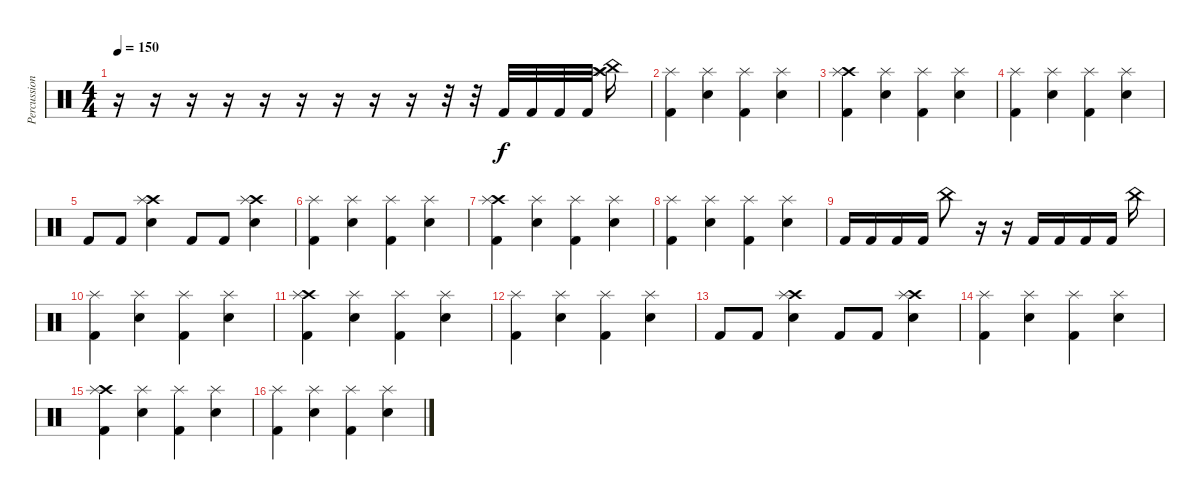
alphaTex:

\track ("Percussion" "Percussion") {instrument percussion}
\staff {score}
\articulation defaults
\ts (4 4)
\tempo 150
\clef neutral
\ks c
r.16{dy f} r.16 r.16 r.16 r.16 r.16 r.16 r.16 r.16 r.32 r.32 "Kick (hit) 2".32 "Kick (hit) 2".32 "Kick (hit) 2".32 "Kick (hit) 2".32 ("Crash high (hit)" "Splash (hit)" "China (hit)").16 |
("Splash (hit)" "Kick (hit) 2").4 ("Splash (hit)" "Electric Snare (hit)").4 ("Splash (hit)" "Kick (hit) 2").4 ("Splash (hit)" "Electric Snare (hit)").4 |
("Crash high (hit)" "Splash (hit)" "Kick (hit) 2").4 ("Splash (hit)" "Electric Snare (hit)").4 ("Splash (hit)" "Kick (hit) 2").4 ("Splash (hit)" "Electric Snare (hit)").4 |
("Splash (hit)" "Kick (hit) 2").4 ("Splash (hit)" "Electric Snare (hit)").4 ("Splash (hit)" "Kick (hit) 2").4 ("Splash (hit)" "Electric Snare (hit)").4 |
"Kick (hit) 2".8 "Kick (hit) 2".8 ("Electric Snare (hit)" "Crash high (hit)" "Splash (hit)").4 "Kick (hit) 2".8 "Kick (hit) 2".8 ("Electric Snare (hit)" "Crash high (hit)" "Splash (hit)").4 |
("Splash (hit)" "Kick (hit) 2").4 ("Splash (hit)" "Electric Snare (hit)").4 ("Splash (hit)" "Kick (hit) 2").4 ("Splash (hit)" "Electric Snare (hit)").4 |
("Crash high (hit)" "Splash (hit)" "Kick (hit) 2").4 ("Splash (hit)" "Electric Snare (hit)").4 ("Splash (hit)" "Kick (hit) 2").4 ("Splash (hit)" "Electric Snare (hit)").4 |
("Splash (hit)" "Kick (hit) 2").4 ("Splash (hit)" "Electric Snare (hit)").4 ("Splash (hit)" "Kick (hit) 2").4 ("Splash (hit)" "Electric Snare (hit)").4 |
"Kick (hit) 2".16 "Kick (hit) 2".16 "Kick (hit) 2".16 "Kick (hit) 2".16 "China (hit)".8 r.16 r.16 "Kick (hit) 2".16 "Kick (hit) 2".16 "Kick (hit) 2".16 "Kick (hit) 2".16 "China (hit)".16 |
("Splash (hit)" "Kick (hit) 2").4 ("Splash (hit)" "Electric Snare (hit)").4 ("Splash (hit)" "Kick (hit) 2").4 ("Splash (hit)" "Electric Snare (hit)").4 |
("Crash high (hit)" "Splash (hit)" "Kick (hit) 2").4 ("Splash (hit)" "Electric Snare (hit)").4 ("Splash (hit)" "Kick (hit) 2").4 ("Splash (hit)" "Electric Snare (hit)").4 |
("Splash (hit)" "Kick (hit) 2").4 ("Splash (hit)" "Electric Snare (hit)").4 ("Splash (hit)" "Kick (hit) 2").4 ("Splash (hit)" "Electric Snare (hit)").4 |
"Kick (hit) 2".8 "Kick (hit) 2".8 ("Electric Snare (hit)" "Crash high (hit)" "Splash (hit)").4 "Kick (hit) 2".8 "Kick (hit) 2".8 ("Electric Snare (hit)" "Crash high (hit)" "Splash (hit)").4 |
("Splash (hit)" "Kick (hit) 2").4 ("Splash (hit)" "Electric Snare (hit)").4 ("Splash (hit)" "Kick (hit) 2").4 ("Splash (hit)" "Electric Snare (hit)").4 |
("Crash high (hit)" "Splash (hit)" "Kick (hit) 2").4 ("Splash (hit)" "Electric Snare (hit)").4 ("Splash (hit)" "Kick (hit) 2").4 ("Splash (hit)" "Electric Snare (hit)").4 |
("Splash (hit)" "Kick (hit) 2").4 ("Splash (hit)" "Electric Snare (hit)").4 ("Splash (hit)" "Kick (hit) 2").4 ("Splash (hit)" "Electric Snare (hit)").4
